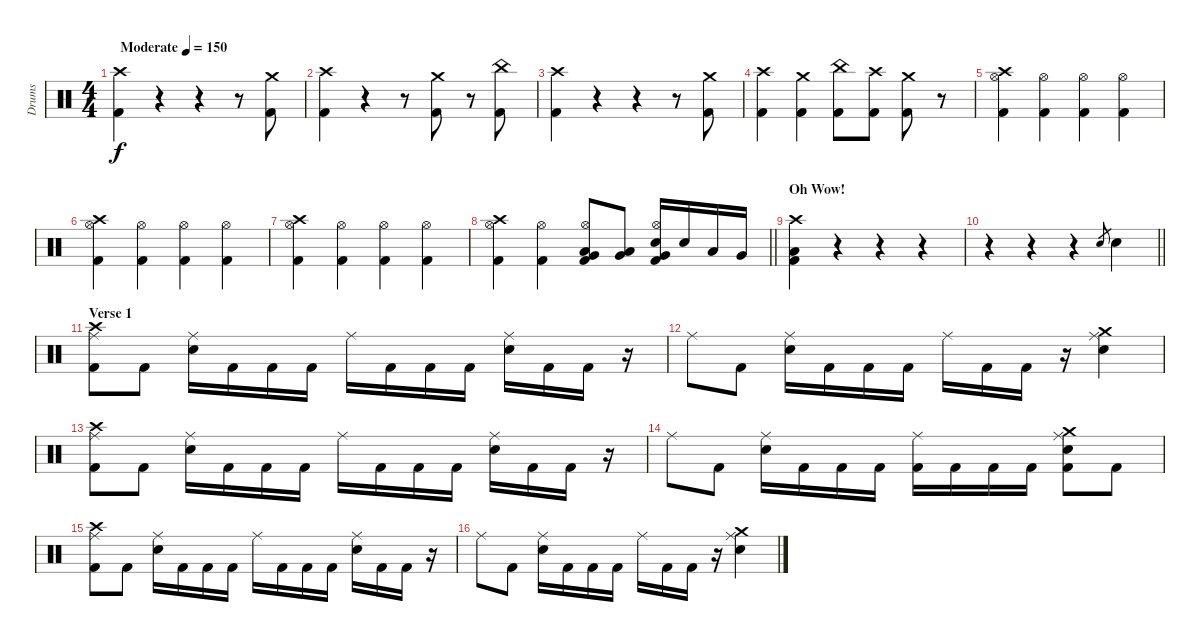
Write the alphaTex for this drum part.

\track ("Drums" "Drums") {instrument percussion}
\staff {score}
\articulation defaults
\ts (4 4)
\tempo (150 "Moderate")
\clef neutral
\ks c
("Crash high (hit)" "Kick (hit) 2").4{dy f} r.4 r.4 r.8 ("Crash medium (hit)" "Kick (hit) 2").8 |
("Crash high (hit)" "Kick (hit) 2").4 r.4 r.8 ("Crash medium (hit)" "Kick (hit) 2").8 r.8 ("China (hit)" "Kick (hit) 2").8 |
("Crash high (hit)" "Kick (hit) 2").4 r.4 r.4 r.8 ("Crash medium (hit)" "Kick (hit) 2").8 |
("Crash high (hit)" "Kick (hit) 2").4 ("Crash medium (hit)" "Kick (hit) 2").4 ("China (hit)" "Kick (hit) 2").8 ("Crash high (hit)" "Kick (hit) 2").8 ("Crash medium (hit)" "Kick (hit) 2").8 r.8 |
("Crash high (hit)" "Hi-Hat (open)" "Kick (hit) 2").4 ("Hi-Hat (open)" "Kick (hit) 2").4 ("Hi-Hat (open)" "Kick (hit) 2").4 ("Hi-Hat (open)" "Kick (hit) 2").4 |
("Crash high (hit)" "Hi-Hat (open)" "Kick (hit) 2").4 ("Hi-Hat (open)" "Kick (hit) 2").4 ("Hi-Hat (open)" "Kick (hit) 2").4 ("Hi-Hat (open)" "Kick (hit) 2").4 |
("Crash high (hit)" "Hi-Hat (open)" "Kick (hit) 2").4 ("Hi-Hat (open)" "Kick (hit) 2").4 ("Hi-Hat (open)" "Kick (hit) 2").4 ("Hi-Hat (open)" "Kick (hit) 2").4 |
\barLineRight lightlight
("Crash high (hit)" "Hi-Hat (open)" "Kick (hit) 2").4 ("Hi-Hat (open)" "Kick (hit) 2").4 ("Hi-Hat (open)" "Very Low Tom (hit)" "Low Floor Tom (hit)" "Kick (hit) 2").8 ("Very Low Tom (hit)" "Low Floor Tom (hit)").8 ("Hi-Hat (open)" "Very Low Tom (hit)" "Snare (hit) 2" "Kick (hit) 2").16 "Snare (hit) 2".16 "Low Tom (hit)".16 "Very Low Tom (hit)".16 |
\section ("" "Oh Wow!")
("Crash high (hit)" "Low Floor Tom (hit)" "Kick (hit) 2").4 r.4 r.4 r.4 |
\barLineRight lightlight
r.4 r.4 r.4 "Snare (hit) 2".8{gr} "Snare (hit) 2".4 |
\section ("" "Verse 1")
("Crash high (hit)" "Ride (middle)" "Kick (hit) 2").8 "Kick (hit) 2".8 ("Ride (middle)" "Snare (hit) 2").16 "Kick (hit) 2".16 "Kick (hit) 2".16 "Kick (hit) 2".16 "Ride (middle)".16 "Kick (hit) 2".16 "Kick (hit) 2".16 "Kick (hit) 2".16 ("Ride (middle)" "Snare (hit) 2").16 "Kick (hit) 2".16 "Kick (hit) 2".16 r.16 |
"Ride (middle)".8 "Kick (hit) 2".8 ("Ride (middle)" "Snare (hit) 2").16 "Kick (hit) 2".16 "Kick (hit) 2".16 "Kick (hit) 2".16 "Ride (middle)".16 "Kick (hit) 2".16 "Kick (hit) 2".16 r.16 ("Crash medium (hit)" "Ride (middle)" "Snare (hit) 2").4 |
("Crash high (hit)" "Ride (middle)" "Kick (hit) 2").8 "Kick (hit) 2".8 ("Ride (middle)" "Snare (hit) 2").16 "Kick (hit) 2".16 "Kick (hit) 2".16 "Kick (hit) 2".16 "Ride (middle)".16 "Kick (hit) 2".16 "Kick (hit) 2".16 "Kick (hit) 2".16 ("Ride (middle)" "Snare (hit) 2").16 "Kick (hit) 2".16 "Kick (hit) 2".16 r.16 |
"Ride (middle)".8 "Kick (hit) 2".8 ("Ride (middle)" "Snare (hit) 2").16 "Kick (hit) 2".16 "Kick (hit) 2".16 "Kick (hit) 2".16 ("Ride (middle)" "Kick (hit) 2").16 "Kick (hit) 2".16 "Kick (hit) 2".16 "Kick (hit) 2".16 ("Crash medium (hit)" "Ride (middle)" "Snare (hit) 2" "Kick (hit) 2").8 "Kick (hit) 2".8 |
("Crash high (hit)" "Ride (middle)" "Kick (hit) 2").8 "Kick (hit) 2".8 ("Ride (middle)" "Snare (hit) 2").16 "Kick (hit) 2".16 "Kick (hit) 2".16 "Kick (hit) 2".16 "Ride (middle)".16 "Kick (hit) 2".16 "Kick (hit) 2".16 "Kick (hit) 2".16 ("Ride (middle)" "Snare (hit) 2").16 "Kick (hit) 2".16 "Kick (hit) 2".16 r.16 |
"Ride (middle)".8 "Kick (hit) 2".8 ("Ride (middle)" "Snare (hit) 2").16 "Kick (hit) 2".16 "Kick (hit) 2".16 "Kick (hit) 2".16 "Ride (middle)".16 "Kick (hit) 2".16 "Kick (hit) 2".16 r.16 ("Crash medium (hit)" "Ride (middle)" "Snare (hit) 2").4
